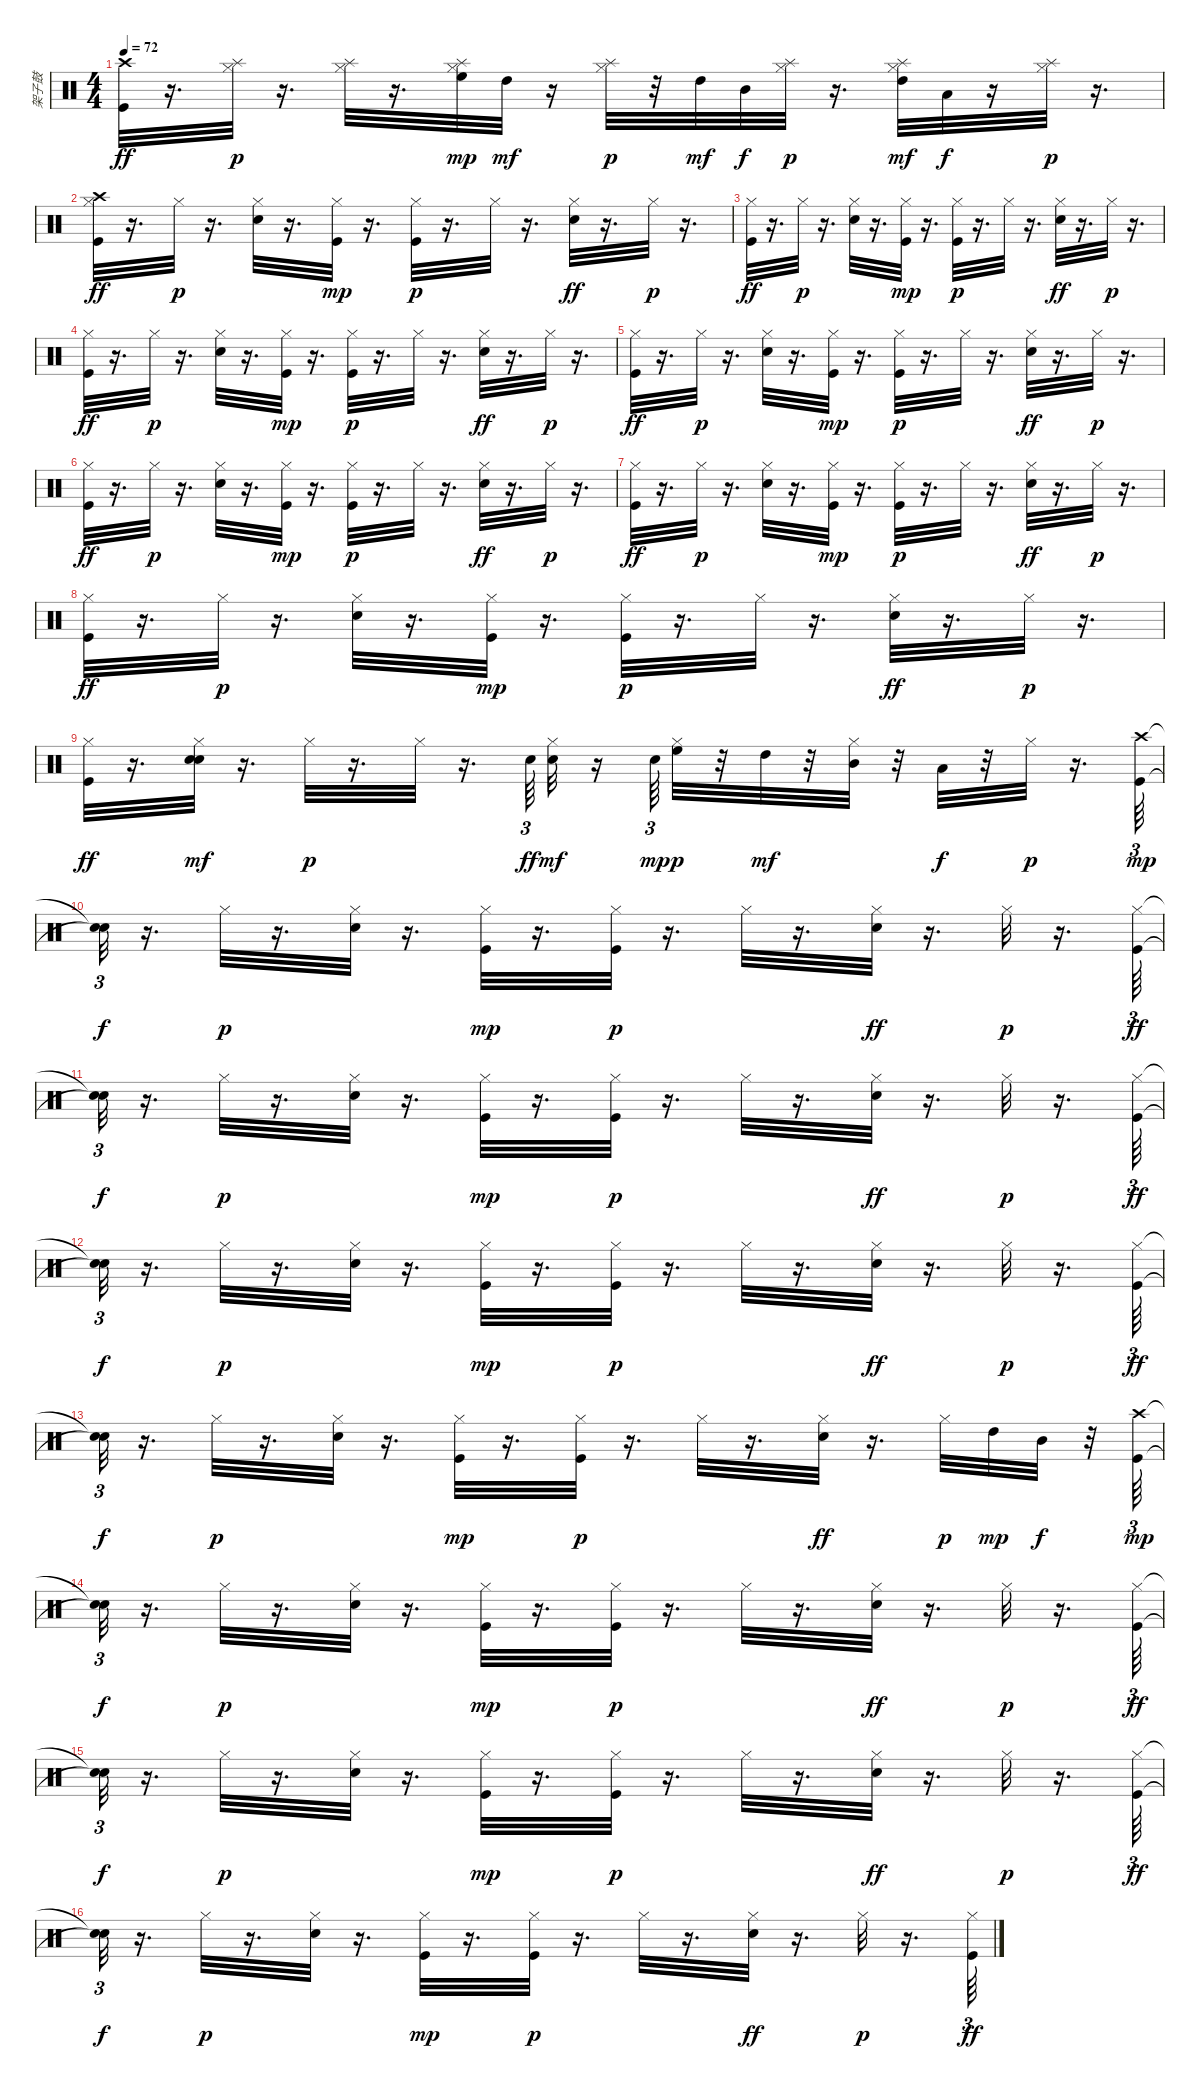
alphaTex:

\track ("架子鼓" "架子鼓") {instrument percussion}
\staff {score}
\articulation defaults
\ts (4 4)
\tempo 72
\clef neutral
\ks c
("Crash high (hit)" "Kick (hit)").32{dy ff} r.16{d} ("Splash (hit)" "Hi-Hat (closed)").32{dy p} r.16{d} ("Splash (hit)" "Hi-Hat (closed)").32 r.16{d} ("Splash (hit)" "Hi-Hat (closed)" "High Floor Tom (hit)").32{dy mp} "High Tom (hit)".32{dy mf} r.16 ("Splash (hit)" "Hi-Hat (closed)").32{dy p} r.32 "High Tom (hit)".32{dy mf} "Mid Tom (hit)".32{dy f} ("Splash (hit)" "Hi-Hat (closed)").32{dy p} r.16{d} ("Splash (hit)" "Hi-Hat (closed)" "High Tom (hit)").32{dy mf} "Low Tom (hit)".32{dy f} r.16 ("Splash (hit)" "Hi-Hat (closed)").32{dy p} r.16{d} |
("Hi-Hat (closed)" "Kick (hit)" "Crash high (hit)").32{dy ff} r.16{d} "Hi-Hat (closed)".32{dy p} r.16{d} ("Hi-Hat (closed)" "Snare (hit) 2").32 r.16{d} ("Hi-Hat (closed)" "Kick (hit)").32{dy mp} r.16{d} ("Hi-Hat (closed)" "Kick (hit)").32{dy p} r.16{d} "Hi-Hat (closed)".32 r.16{d} ("Hi-Hat (closed)" "Snare (hit) 2").32{dy ff} r.16{d} "Hi-Hat (closed)".32{dy p} r.16{d} |
("Hi-Hat (closed)" "Kick (hit)").32{dy ff} r.16{d} "Hi-Hat (closed)".32{dy p} r.16{d} ("Hi-Hat (closed)" "Snare (hit) 2").32 r.16{d} ("Hi-Hat (closed)" "Kick (hit)").32{dy mp} r.16{d} ("Hi-Hat (closed)" "Kick (hit)").32{dy p} r.16{d} "Hi-Hat (closed)".32 r.16{d} ("Hi-Hat (closed)" "Snare (hit) 2").32{dy ff} r.16{d} "Hi-Hat (closed)".32{dy p} r.16{d} |
("Hi-Hat (closed)" "Kick (hit)").32{dy ff} r.16{d} "Hi-Hat (closed)".32{dy p} r.16{d} ("Hi-Hat (closed)" "Snare (hit) 2").32 r.16{d} ("Hi-Hat (closed)" "Kick (hit)").32{dy mp} r.16{d} ("Hi-Hat (closed)" "Kick (hit)").32{dy p} r.16{d} "Hi-Hat (closed)".32 r.16{d} ("Hi-Hat (closed)" "Snare (hit) 2").32{dy ff} r.16{d} "Hi-Hat (closed)".32{dy p} r.16{d} |
("Hi-Hat (closed)" "Kick (hit)").32{dy ff} r.16{d} "Hi-Hat (closed)".32{dy p} r.16{d} ("Hi-Hat (closed)" "Snare (hit) 2").32 r.16{d} ("Hi-Hat (closed)" "Kick (hit)").32{dy mp} r.16{d} ("Hi-Hat (closed)" "Kick (hit)").32{dy p} r.16{d} "Hi-Hat (closed)".32 r.16{d} ("Hi-Hat (closed)" "Snare (hit) 2").32{dy ff} r.16{d} "Hi-Hat (closed)".32{dy p} r.16{d} |
("Hi-Hat (closed)" "Kick (hit)").32{dy ff} r.16{d} "Hi-Hat (closed)".32{dy p} r.16{d} ("Hi-Hat (closed)" "Snare (hit) 2").32 r.16{d} ("Hi-Hat (closed)" "Kick (hit)").32{dy mp} r.16{d} ("Hi-Hat (closed)" "Kick (hit)").32{dy p} r.16{d} "Hi-Hat (closed)".32 r.16{d} ("Hi-Hat (closed)" "Snare (hit) 2").32{dy ff} r.16{d} "Hi-Hat (closed)".32{dy p} r.16{d} |
("Hi-Hat (closed)" "Kick (hit)").32{dy ff} r.16{d} "Hi-Hat (closed)".32{dy p} r.16{d} ("Hi-Hat (closed)" "Snare (hit) 2").32 r.16{d} ("Hi-Hat (closed)" "Kick (hit)").32{dy mp} r.16{d} ("Hi-Hat (closed)" "Kick (hit)").32{dy p} r.16{d} "Hi-Hat (closed)".32 r.16{d} ("Hi-Hat (closed)" "Snare (hit) 2").32{dy ff} r.16{d} "Hi-Hat (closed)".32{dy p} r.16{d} |
("Hi-Hat (closed)" "Kick (hit)").32{dy ff} r.16{d} "Hi-Hat (closed)".32{dy p} r.16{d} ("Hi-Hat (closed)" "Snare (hit) 2").32 r.16{d} ("Hi-Hat (closed)" "Kick (hit)").32{dy mp} r.16{d} ("Hi-Hat (closed)" "Kick (hit)").32{dy p} r.16{d} "Hi-Hat (closed)".32 r.16{d} ("Hi-Hat (closed)" "Snare (hit) 2").32{dy ff} r.16{d} "Hi-Hat (closed)".32{dy p} r.16{d} |
("Hi-Hat (closed)" "Kick (hit)").32{dy ff} r.16{d} ("Hi-Hat (closed)" "Snare (hit) 2" "Snare (hit) 2").32{dy mf} r.16{d} "Hi-Hat (closed)".32{dy p} r.16{d} "Hi-Hat (closed)".32 r.16{d} "Snare (hit) 2".64{tu (3 2) dy ff} ("Hi-Hat (closed)" "Snare (hit) 2").32{dy mf} r.16 "Snare (hit) 2".64{tu (3 2) dy mp} ("Hi-Hat (closed)" "High Floor Tom (hit)").32{dy p} r.32 "High Tom (hit)".32{dy mf} r.32 ("Hi-Hat (closed)" "Mid Tom (hit)").32 r.32 "Low Tom (hit)".32{dy f} r.32 "Hi-Hat (closed)".32{dy p} r.16{d} ("Crash high (hit)" "Kick (hit)").64{tu (3 2) dy mp} |
("Snare (hit)"{t} "Snare (hit)"{t}).32{tu (3 2) dy f} r.16{d} "Hi-Hat (closed)".32{dy p} r.16{d} ("Hi-Hat (closed)" "Snare (hit) 2").32 r.16{d} ("Hi-Hat (closed)" "Kick (hit)").32{dy mp} r.16{d} ("Hi-Hat (closed)" "Kick (hit)").32{dy p} r.16{d} "Hi-Hat (closed)".32 r.16{d} ("Hi-Hat (closed)" "Snare (hit) 2").32{dy ff} r.16{d} "Hi-Hat (closed)".32{dy p} r.16{d} ("Hi-Hat (closed)" "Kick (hit)").64{tu (3 2) dy ff} |
("Snare (hit)"{t} "Snare (hit)"{t}).32{tu (3 2) dy f} r.16{d} "Hi-Hat (closed)".32{dy p} r.16{d} ("Hi-Hat (closed)" "Snare (hit) 2").32 r.16{d} ("Hi-Hat (closed)" "Kick (hit)").32{dy mp} r.16{d} ("Hi-Hat (closed)" "Kick (hit)").32{dy p} r.16{d} "Hi-Hat (closed)".32 r.16{d} ("Hi-Hat (closed)" "Snare (hit) 2").32{dy ff} r.16{d} "Hi-Hat (closed)".32{dy p} r.16{d} ("Hi-Hat (closed)" "Kick (hit)").64{tu (3 2) dy ff} |
("Snare (hit)"{t} "Snare (hit)"{t}).32{tu (3 2) dy f} r.16{d} "Hi-Hat (closed)".32{dy p} r.16{d} ("Hi-Hat (closed)" "Snare (hit) 2").32 r.16{d} ("Hi-Hat (closed)" "Kick (hit)").32{dy mp} r.16{d} ("Hi-Hat (closed)" "Kick (hit)").32{dy p} r.16{d} "Hi-Hat (closed)".32 r.16{d} ("Hi-Hat (closed)" "Snare (hit) 2").32{dy ff} r.16{d} "Hi-Hat (closed)".32{dy p} r.16{d} ("Hi-Hat (closed)" "Kick (hit)").64{tu (3 2) dy ff} |
("Snare (hit)"{t} "Snare (hit)"{t}).32{tu (3 2) dy f} r.16{d} "Hi-Hat (closed)".32{dy p} r.16{d} ("Hi-Hat (closed)" "Snare (hit) 2").32 r.16{d} ("Hi-Hat (closed)" "Kick (hit)").32{dy mp} r.16{d} ("Hi-Hat (closed)" "Kick (hit)").32{dy p} r.16{d} "Hi-Hat (closed)".32 r.16{d} ("Hi-Hat (closed)" "Snare (hit) 2").32{dy ff} r.16{d} "Hi-Hat (closed)".32{dy p} "High Tom (hit)".32{dy mp} "Mid Tom (hit)".32{dy f} r.32 ("Crash high (hit)" "Kick (hit)").64{tu (3 2) dy mp} |
("Snare (hit)"{t} "Snare (hit)"{t}).32{tu (3 2) dy f} r.16{d} "Hi-Hat (closed)".32{dy p} r.16{d} ("Hi-Hat (closed)" "Snare (hit) 2").32 r.16{d} ("Hi-Hat (closed)" "Kick (hit)").32{dy mp} r.16{d} ("Hi-Hat (closed)" "Kick (hit)").32{dy p} r.16{d} "Hi-Hat (closed)".32 r.16{d} ("Hi-Hat (closed)" "Snare (hit) 2").32{dy ff} r.16{d} "Hi-Hat (closed)".32{dy p} r.16{d} ("Hi-Hat (closed)" "Kick (hit)").64{tu (3 2) dy ff} |
("Snare (hit)"{t} "Snare (hit)"{t}).32{tu (3 2) dy f} r.16{d} "Hi-Hat (closed)".32{dy p} r.16{d} ("Hi-Hat (closed)" "Snare (hit) 2").32 r.16{d} ("Hi-Hat (closed)" "Kick (hit)").32{dy mp} r.16{d} ("Hi-Hat (closed)" "Kick (hit)").32{dy p} r.16{d} "Hi-Hat (closed)".32 r.16{d} ("Hi-Hat (closed)" "Snare (hit) 2").32{dy ff} r.16{d} "Hi-Hat (closed)".32{dy p} r.16{d} ("Hi-Hat (closed)" "Kick (hit)").64{tu (3 2) dy ff} |
("Snare (hit)"{t} "Snare (hit)"{t}).32{tu (3 2) dy f} r.16{d} "Hi-Hat (closed)".32{dy p} r.16{d} ("Hi-Hat (closed)" "Snare (hit) 2").32 r.16{d} ("Hi-Hat (closed)" "Kick (hit)").32{dy mp} r.16{d} ("Hi-Hat (closed)" "Kick (hit)").32{dy p} r.16{d} "Hi-Hat (closed)".32 r.16{d} ("Hi-Hat (closed)" "Snare (hit) 2").32{dy ff} r.16{d} "Hi-Hat (closed)".32{dy p} r.16{d} ("Hi-Hat (closed)" "Kick (hit)").64{tu (3 2) dy ff}
